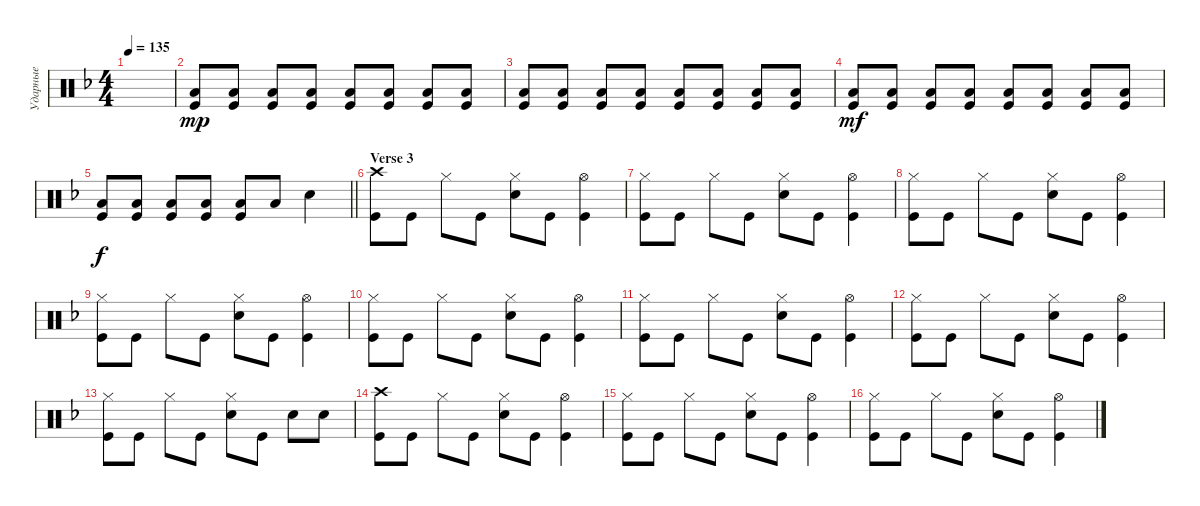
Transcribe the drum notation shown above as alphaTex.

\track ("Ударные" "Ударные") {instrument percussion}
\staff {score}
\articulation defaults
\ts (4 4)
\tempo 135
\clef neutral
\ks dminor
|
("Kick (hit)" "Low Floor Tom (hit)").8{dy mp volume 5} ("Kick (hit)" "Low Floor Tom (hit)").8{volume 14} ("Kick (hit)" "Low Floor Tom (hit)").8 ("Kick (hit)" "Low Floor Tom (hit)").8 ("Kick (hit)" "Low Floor Tom (hit)").8 ("Kick (hit)" "Low Floor Tom (hit)").8 ("Kick (hit)" "Low Floor Tom (hit)").8 ("Kick (hit)" "Low Floor Tom (hit)").8 |
("Kick (hit)" "Low Floor Tom (hit)").8 ("Kick (hit)" "Low Floor Tom (hit)").8 ("Kick (hit)" "Low Floor Tom (hit)").8 ("Kick (hit)" "Low Floor Tom (hit)").8 ("Kick (hit)" "Low Floor Tom (hit)").8 ("Kick (hit)" "Low Floor Tom (hit)").8 ("Kick (hit)" "Low Floor Tom (hit)").8 ("Kick (hit)" "Low Floor Tom (hit)").8 |
("Kick (hit)" "Low Floor Tom (hit)").8{dy mf} ("Kick (hit)" "Low Floor Tom (hit)").8 ("Kick (hit)" "Low Floor Tom (hit)").8 ("Kick (hit)" "Low Floor Tom (hit)").8 ("Kick (hit)" "Low Floor Tom (hit)").8 ("Kick (hit)" "Low Floor Tom (hit)").8 ("Kick (hit)" "Low Floor Tom (hit)").8 ("Kick (hit)" "Low Floor Tom (hit)").8 |
\barLineRight lightlight
("Kick (hit)" "Low Floor Tom (hit)").8{dy f} ("Kick (hit)" "Low Floor Tom (hit)").8 ("Kick (hit)" "Low Floor Tom (hit)").8 ("Kick (hit)" "Low Floor Tom (hit)").8 ("Kick (hit)" "Low Floor Tom (hit)").8 "Low Floor Tom (hit)".8 "Snare (hit) 2".4 |
\section ("" "Verse 3")
("Kick (hit)" "Crash high (hit)").8 "Kick (hit)".8 "Hi-Hat (closed)".8 "Kick (hit)".8 ("Snare (hit) 2" "Hi-Hat (closed)").8 "Kick (hit)".8 ("Kick (hit)" "Hi-Hat (open)").4 |
("Kick (hit)" "Hi-Hat (closed)").8 "Kick (hit)".8 "Hi-Hat (closed)".8 "Kick (hit)".8 ("Snare (hit) 2" "Hi-Hat (closed)").8 "Kick (hit)".8 ("Kick (hit)" "Hi-Hat (open)").4 |
("Kick (hit)" "Hi-Hat (closed)").8 "Kick (hit)".8 "Hi-Hat (closed)".8 "Kick (hit)".8 ("Snare (hit) 2" "Hi-Hat (closed)").8 "Kick (hit)".8 ("Kick (hit)" "Hi-Hat (open)").4 |
("Kick (hit)" "Hi-Hat (closed)").8 "Kick (hit)".8 "Hi-Hat (closed)".8 "Kick (hit)".8 ("Snare (hit) 2" "Hi-Hat (closed)").8 "Kick (hit)".8 ("Kick (hit)" "Hi-Hat (open)").4 |
("Kick (hit)" "Hi-Hat (closed)").8 "Kick (hit)".8 "Hi-Hat (closed)".8 "Kick (hit)".8 ("Snare (hit) 2" "Hi-Hat (closed)").8 "Kick (hit)".8 ("Kick (hit)" "Hi-Hat (open)").4 |
("Kick (hit)" "Hi-Hat (closed)").8 "Kick (hit)".8 "Hi-Hat (closed)".8 "Kick (hit)".8 ("Snare (hit) 2" "Hi-Hat (closed)").8 "Kick (hit)".8 ("Kick (hit)" "Hi-Hat (open)").4 |
("Kick (hit)" "Hi-Hat (closed)").8 "Kick (hit)".8 "Hi-Hat (closed)".8 "Kick (hit)".8 ("Snare (hit) 2" "Hi-Hat (closed)").8 "Kick (hit)".8 ("Kick (hit)" "Hi-Hat (open)").4 |
("Kick (hit)" "Hi-Hat (closed)").8 "Kick (hit)".8 "Hi-Hat (closed)".8 "Kick (hit)".8 ("Snare (hit) 2" "Hi-Hat (closed)").8 "Kick (hit)".8 "Snare (hit) 2".8 "Snare (hit) 2".8 |
("Kick (hit)" "Crash high (hit)").8 "Kick (hit)".8 "Hi-Hat (closed)".8 "Kick (hit)".8 ("Snare (hit) 2" "Hi-Hat (closed)").8 "Kick (hit)".8 ("Kick (hit)" "Hi-Hat (open)").4 |
("Kick (hit)" "Hi-Hat (closed)").8 "Kick (hit)".8 "Hi-Hat (closed)".8 "Kick (hit)".8 ("Snare (hit) 2" "Hi-Hat (closed)").8 "Kick (hit)".8 ("Kick (hit)" "Hi-Hat (open)").4 |
("Kick (hit)" "Hi-Hat (closed)").8 "Kick (hit)".8 "Hi-Hat (closed)".8 "Kick (hit)".8 ("Snare (hit) 2" "Hi-Hat (closed)").8 "Kick (hit)".8 ("Kick (hit)" "Hi-Hat (open)").4
